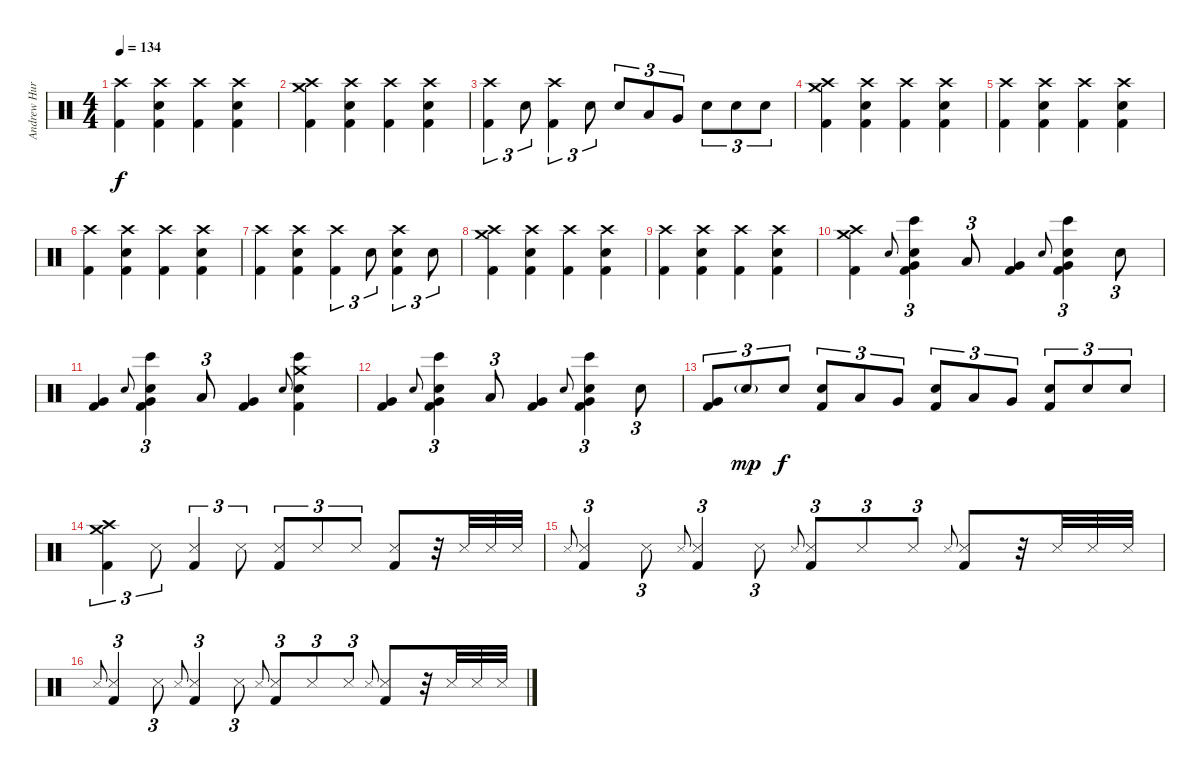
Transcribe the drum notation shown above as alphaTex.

\track ("Andrew Hurley (Drums)" "Andrew Hur") {instrument percussion}
\staff {score}
\articulation defaults
\ts (4 4)
\tempo 134
\clef neutral
\ks c
("Crash high (hit)" "Kick (hit) 2").4{dy f} ("Crash high (hit)" "Snare (hit) 2" "Kick (hit) 2").4 ("Crash high (hit)" "Kick (hit) 2").4 ("Crash high (hit)" "Snare (hit) 2" "Kick (hit) 2").4 |
("Crash high (hit)" "Crash medium (hit)" "Kick (hit) 2").4 ("Crash high (hit)" "Snare (hit) 2" "Kick (hit) 2").4 ("Crash high (hit)" "Kick (hit) 2").4 ("Crash high (hit)" "Snare (hit) 2" "Kick (hit) 2").4 |
("Crash high (hit)" "Kick (hit) 2").4{tu (3 2)} "Snare (hit) 2".8{tu (3 2)} ("Crash high (hit)" "Kick (hit) 2").4{tu (3 2)} "Snare (hit) 2".8{tu (3 2)} "Snare (hit) 2".8{tu (3 2)} "Low Tom (hit)".8{tu (3 2)} "Very Low Tom (hit)".8{tu (3 2)} "Snare (hit) 2".8{tu (3 2)} "Snare (hit) 2".8{tu (3 2)} "Snare (hit) 2".8{tu (3 2)} |
("Crash high (hit)" "Crash medium (hit)" "Kick (hit) 2").4 ("Crash high (hit)" "Snare (hit) 2" "Kick (hit) 2").4 ("Crash high (hit)" "Kick (hit) 2").4 ("Crash high (hit)" "Snare (hit) 2" "Kick (hit) 2").4 |
("Crash high (hit)" "Kick (hit) 2").4 ("Crash high (hit)" "Snare (hit) 2" "Kick (hit) 2").4 ("Crash high (hit)" "Kick (hit) 2").4 ("Crash high (hit)" "Snare (hit) 2" "Kick (hit) 2").4 |
("Crash high (hit)" "Kick (hit) 2").4 ("Crash high (hit)" "Snare (hit) 2" "Kick (hit) 2").4 ("Crash high (hit)" "Kick (hit) 2").4 ("Crash high (hit)" "Snare (hit) 2" "Kick (hit) 2").4 |
("Crash high (hit)" "Kick (hit) 2").4 ("Crash high (hit)" "Snare (hit) 2" "Kick (hit) 2").4 ("Crash high (hit)" "Kick (hit) 2").4{tu (3 2)} "Snare (hit) 2".8{tu (3 2)} ("Crash high (hit)" "Snare (hit) 2" "Kick (hit) 2").4{tu (3 2)} "Snare (hit) 2".8{tu (3 2)} |
("Crash high (hit)" "Crash medium (hit)" "Kick (hit) 2").4 ("Crash high (hit)" "Snare (hit) 2" "Kick (hit) 2").4 ("Crash high (hit)" "Kick (hit) 2").4 ("Crash high (hit)" "Snare (hit) 2" "Kick (hit) 2").4 |
("Crash high (hit)" "Kick (hit) 2").4 ("Crash high (hit)" "Snare (hit) 2" "Kick (hit) 2").4 ("Crash high (hit)" "Kick (hit) 2").4 ("Crash high (hit)" "Snare (hit) 2" "Kick (hit) 2").4 |
("Crash high (hit)" "Crash medium (hit)" "Kick (hit) 2").4 "Snare (hit)".8{gr onbeat} ("Very Low Tom (hit)" "Snare (hit) 2" "Kick (hit) 2" "Bongo High (hit)").4{tu (3 2)} "Low Tom (hit)".8{tu (3 2)} ("Very Low Tom (hit)" "Kick (hit) 2").4 "Snare (hit)".8{gr onbeat} ("Very Low Tom (hit)" "Snare (hit) 2" "Kick (hit) 2" "Bongo High (hit)").4{tu (3 2)} "Snare (hit) 2".8{tu (3 2)} |
("Very Low Tom (hit)" "Kick (hit) 2").4 "Snare (hit)".8{gr onbeat} ("Very Low Tom (hit)" "Snare (hit) 2" "Kick (hit) 2" "Bongo High (hit)").4{tu (3 2)} "Low Tom (hit)".8{tu (3 2)} ("Very Low Tom (hit)" "Kick (hit) 2").4 "Snare (hit)".8{gr onbeat} ("Crash medium (hit)" "Snare (hit) 2" "Kick (hit) 2" "Bongo High (hit)").4 |
("Very Low Tom (hit)" "Kick (hit) 2").4 "Snare (hit)".8{gr onbeat} ("Very Low Tom (hit)" "Snare (hit) 2" "Kick (hit) 2" "Bongo High (hit)").4{tu (3 2)} "Low Tom (hit)".8{tu (3 2)} ("Very Low Tom (hit)" "Kick (hit) 2").4 "Snare (hit)".8{gr onbeat} ("Very Low Tom (hit)" "Snare (hit) 2" "Kick (hit) 2" "Bongo High (hit)").4{tu (3 2)} "Snare (hit) 2".8{tu (3 2)} |
("Very Low Tom (hit)" "Kick (hit) 2").8{tu (3 2)} "Snare (hit) 2"{g}.8{tu (3 2) dy mp} "Snare (hit) 2".8{tu (3 2) dy f} ("Snare (hit) 2" "Kick (hit) 2").8{tu (3 2)} "Low Tom (hit)".8{tu (3 2)} "Very Low Tom (hit)".8{tu (3 2)} ("Snare (hit) 2" "Kick (hit) 2").8{tu (3 2)} "Low Tom (hit)".8{tu (3 2)} "Very Low Tom (hit)".8{tu (3 2)} ("Snare (hit) 2" "Kick (hit) 2").8{tu (3 2)} "Snare (hit) 2".8{tu (3 2)} "Snare (hit) 2".8{tu (3 2)} |
("Crash high (hit)" "Crash medium (hit)" "Kick (hit) 2").4{tu (3 2)} "Snare (side stick) 3".8{tu (3 2)} ("Snare (side stick) 3" "Kick (hit) 2").4{tu (3 2)} "Snare (side stick) 3".8{tu (3 2)} ("Snare (side stick) 3" "Kick (hit) 2").8{tu (3 2)} "Snare (side stick) 3".8{tu (3 2)} "Snare (side stick) 3".8{tu (3 2)} ("Snare (side stick) 3" "Kick (hit) 2").8 r.32 "Snare (side stick) 3".32 "Snare (side stick) 3".32 "Snare (side stick) 3".32 |
"Snare (side stick) 3".8{gr onbeat} ("Snare (side stick) 3" "Kick (hit) 2").4{tu (3 2)} "Snare (side stick) 3".8{tu (3 2)} "Snare (side stick) 3".8{gr onbeat} ("Snare (side stick) 3" "Kick (hit) 2").4{tu (3 2)} "Snare (side stick) 3".8{tu (3 2)} "Snare (side stick) 3".8{gr onbeat} ("Snare (side stick) 3" "Kick (hit) 2").8{tu (3 2)} "Snare (side stick) 3".8{tu (3 2)} "Snare (side stick) 3".8{tu (3 2)} "Snare (side stick) 3".8{gr onbeat} ("Snare (side stick) 3" "Kick (hit) 2").8 r.32 "Snare (side stick) 3".32 "Snare (side stick) 3".32 "Snare (side stick) 3".32 |
"Snare (side stick) 3".8{gr onbeat} ("Snare (side stick) 3" "Kick (hit) 2").4{tu (3 2)} "Snare (side stick) 3".8{tu (3 2)} "Snare (side stick) 3".8{gr onbeat} ("Snare (side stick) 3" "Kick (hit) 2").4{tu (3 2)} "Snare (side stick) 3".8{tu (3 2)} "Snare (side stick) 3".8{gr onbeat} ("Snare (side stick) 3" "Kick (hit) 2").8{tu (3 2)} "Snare (side stick) 3".8{tu (3 2)} "Snare (side stick) 3".8{tu (3 2)} "Snare (side stick) 3".8{gr onbeat} ("Snare (side stick) 3" "Kick (hit) 2").8 r.32 "Snare (side stick) 3".32 "Snare (side stick) 3".32 "Snare (side stick) 3".32
